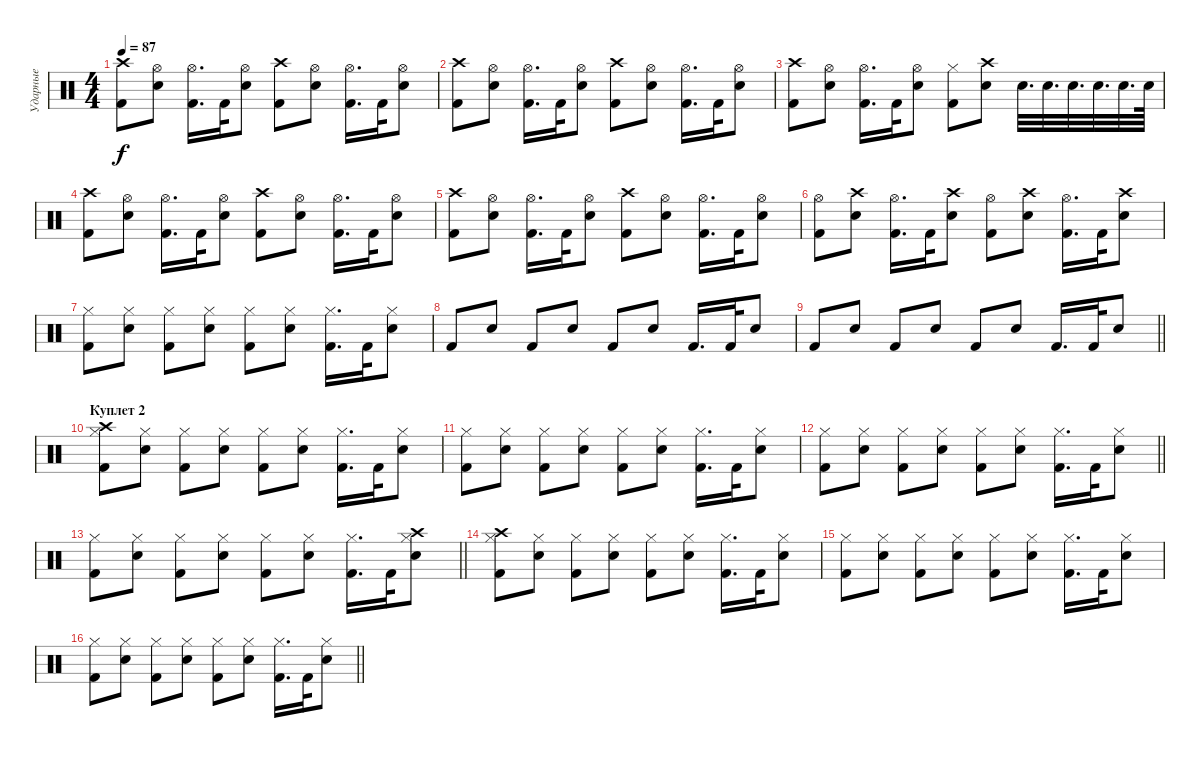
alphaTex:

\track ("Ударные" "Ударные") {instrument percussion}
\staff {score}
\articulation defaults
\ts (4 4)
\tempo 87
\clef neutral
\ks c
("Crash high (hit)" "Kick (hit) 2").8{dy f} ("Hi-Hat (open)" "Snare (hit) 2").8 ("Hi-Hat (open)" "Kick (hit) 2").16{d} "Kick (hit) 2".32 ("Hi-Hat (open)" "Snare (hit) 2").8 ("Crash high (hit)" "Kick (hit) 2").8 ("Hi-Hat (open)" "Snare (hit) 2").8 ("Hi-Hat (open)" "Kick (hit) 2").16{d} "Kick (hit) 2".32 ("Hi-Hat (open)" "Snare (hit) 2").8 |
("Crash high (hit)" "Kick (hit) 2").8 ("Hi-Hat (open)" "Snare (hit) 2").8 ("Hi-Hat (open)" "Kick (hit) 2").16{d} "Kick (hit) 2".32 ("Hi-Hat (open)" "Snare (hit) 2").8 ("Crash high (hit)" "Kick (hit) 2").8 ("Hi-Hat (open)" "Snare (hit) 2").8 ("Hi-Hat (open)" "Kick (hit) 2").16{d} "Kick (hit) 2".32 ("Hi-Hat (open)" "Snare (hit) 2").8 |
("Crash high (hit)" "Kick (hit) 2").8 ("Hi-Hat (open)" "Snare (hit) 2").8 ("Hi-Hat (open)" "Kick (hit) 2").16{d} "Kick (hit) 2".32 ("Hi-Hat (open)" "Snare (hit) 2").8 ("Hi-Hat (closed)" "Kick (hit) 2").8 ("Crash high (hit)" "Snare (hit) 2").8 "Snare (hit) 2".32{d} "Snare (hit) 2".32{d} "Snare (hit) 2".32{d} "Snare (hit) 2".32{d} "Snare (hit) 2".32{d} "Snare (hit) 2".64 |
("Crash high (hit)" "Kick (hit) 2").8 ("Hi-Hat (open)" "Snare (hit) 2").8 ("Hi-Hat (open)" "Kick (hit) 2").16{d} "Kick (hit) 2".32 ("Hi-Hat (open)" "Snare (hit) 2").8 ("Crash high (hit)" "Kick (hit) 2").8 ("Hi-Hat (open)" "Snare (hit) 2").8 ("Hi-Hat (open)" "Kick (hit) 2").16{d} "Kick (hit) 2".32 ("Hi-Hat (open)" "Snare (hit) 2").8 |
("Crash high (hit)" "Kick (hit) 2").8 ("Hi-Hat (open)" "Snare (hit) 2").8 ("Hi-Hat (open)" "Kick (hit) 2").16{d} "Kick (hit) 2".32 ("Hi-Hat (open)" "Snare (hit) 2").8 ("Crash high (hit)" "Kick (hit) 2").8 ("Hi-Hat (open)" "Snare (hit) 2").8 ("Hi-Hat (open)" "Kick (hit) 2").16{d} "Kick (hit) 2".32 ("Hi-Hat (open)" "Snare (hit) 2").8 |
("Hi-Hat (open)" "Kick (hit) 2").8 ("Crash high (hit)" "Snare (hit) 2").8 ("Hi-Hat (open)" "Kick (hit) 2").16{d} "Kick (hit) 2".32 ("Crash high (hit)" "Snare (hit) 2").8 ("Hi-Hat (open)" "Kick (hit) 2").8 ("Crash high (hit)" "Snare (hit) 2").8 ("Hi-Hat (open)" "Kick (hit) 2").16{d} "Kick (hit) 2".32 ("Crash high (hit)" "Snare (hit) 2").8 |
("Hi-Hat (closed)" "Kick (hit) 2").8 ("Hi-Hat (closed)" "Snare (hit) 2").8 ("Hi-Hat (closed)" "Kick (hit) 2").8 ("Hi-Hat (closed)" "Snare (hit) 2").8 ("Hi-Hat (closed)" "Kick (hit) 2").8 ("Hi-Hat (closed)" "Snare (hit) 2").8 ("Hi-Hat (closed)" "Kick (hit) 2").16{d} "Kick (hit) 2".32 ("Hi-Hat (closed)" "Snare (hit) 2").8 |
"Kick (hit) 2".8 "Snare (hit) 2".8 "Kick (hit) 2".8 "Snare (hit) 2".8 "Kick (hit) 2".8 "Snare (hit) 2".8 "Kick (hit) 2".16{d} "Kick (hit) 2".32 "Snare (hit) 2".8 |
\barLineRight lightlight "Kick (hit) 2".8 "Snare (hit) 2".8 "Kick (hit) 2".8 "Snare (hit) 2".8 "Kick (hit) 2".8 "Snare (hit) 2".8 "Kick (hit) 2".16{d} "Kick (hit) 2".32 "Snare (hit) 2".8
|
\section ("" "Куплет 2")
("Hi-Hat (closed)" "Crash high (hit)" "Kick (hit) 2").8 ("Hi-Hat (closed)" "Snare (hit) 2").8 ("Hi-Hat (closed)" "Kick (hit) 2").8 ("Hi-Hat (closed)" "Snare (hit) 2").8 ("Hi-Hat (closed)" "Kick (hit) 2").8 ("Hi-Hat (closed)" "Snare (hit) 2").8 ("Hi-Hat (closed)" "Kick (hit) 2").16{d} "Kick (hit) 2".32 ("Hi-Hat (closed)" "Snare (hit) 2").8 |
("Hi-Hat (closed)" "Kick (hit) 2").8 ("Hi-Hat (closed)" "Snare (hit) 2").8 ("Hi-Hat (closed)" "Kick (hit) 2").8 ("Hi-Hat (closed)" "Snare (hit) 2").8 ("Hi-Hat (closed)" "Kick (hit) 2").8 ("Hi-Hat (closed)" "Snare (hit) 2").8 ("Hi-Hat (closed)" "Kick (hit) 2").16{d} "Kick (hit) 2".32 ("Hi-Hat (closed)" "Snare (hit) 2").8 |
\barLineRight lightlight
("Hi-Hat (closed)" "Kick (hit) 2").8 ("Hi-Hat (closed)" "Snare (hit) 2").8 ("Hi-Hat (closed)" "Kick (hit) 2").8 ("Hi-Hat (closed)" "Snare (hit) 2").8 ("Hi-Hat (closed)" "Kick (hit) 2").8 ("Hi-Hat (closed)" "Snare (hit) 2").8 ("Hi-Hat (closed)" "Kick (hit) 2").16{d} "Kick (hit) 2".32 ("Hi-Hat (closed)" "Snare (hit) 2").8 |
\barLineRight lightlight
("Hi-Hat (closed)" "Kick (hit) 2").8 ("Hi-Hat (closed)" "Snare (hit) 2").8 ("Hi-Hat (closed)" "Kick (hit) 2").8 ("Hi-Hat (closed)" "Snare (hit) 2").8 ("Hi-Hat (closed)" "Kick (hit) 2").8 ("Hi-Hat (closed)" "Snare (hit) 2").8 ("Hi-Hat (closed)" "Kick (hit) 2").16{d} "Kick (hit) 2".32 ("Hi-Hat (closed)" "Crash high (hit)" "Snare (hit) 2").8 |
("Hi-Hat (closed)" "Crash high (hit)" "Kick (hit) 2").8 ("Hi-Hat (closed)" "Snare (hit) 2").8 ("Hi-Hat (closed)" "Kick (hit) 2").8 ("Hi-Hat (closed)" "Snare (hit) 2").8 ("Hi-Hat (closed)" "Kick (hit) 2").8 ("Hi-Hat (closed)" "Snare (hit) 2").8 ("Hi-Hat (closed)" "Kick (hit) 2").16{d} "Kick (hit) 2".32 ("Hi-Hat (closed)" "Snare (hit) 2").8 |
("Hi-Hat (closed)" "Kick (hit) 2").8 ("Hi-Hat (closed)" "Snare (hit) 2").8 ("Hi-Hat (closed)" "Kick (hit) 2").8 ("Hi-Hat (closed)" "Snare (hit) 2").8 ("Hi-Hat (closed)" "Kick (hit) 2").8 ("Hi-Hat (closed)" "Snare (hit) 2").8 ("Hi-Hat (closed)" "Kick (hit) 2").16{d} "Kick (hit) 2".32 ("Hi-Hat (closed)" "Snare (hit) 2").8 |
\barLineRight lightlight
("Hi-Hat (closed)" "Kick (hit) 2").8 ("Hi-Hat (closed)" "Snare (hit) 2").8 ("Hi-Hat (closed)" "Kick (hit) 2").8 ("Hi-Hat (closed)" "Snare (hit) 2").8 ("Hi-Hat (closed)" "Kick (hit) 2").8 ("Hi-Hat (closed)" "Snare (hit) 2").8 ("Hi-Hat (closed)" "Kick (hit) 2").16{d} "Kick (hit) 2".32 ("Hi-Hat (closed)" "Snare (hit) 2").8
